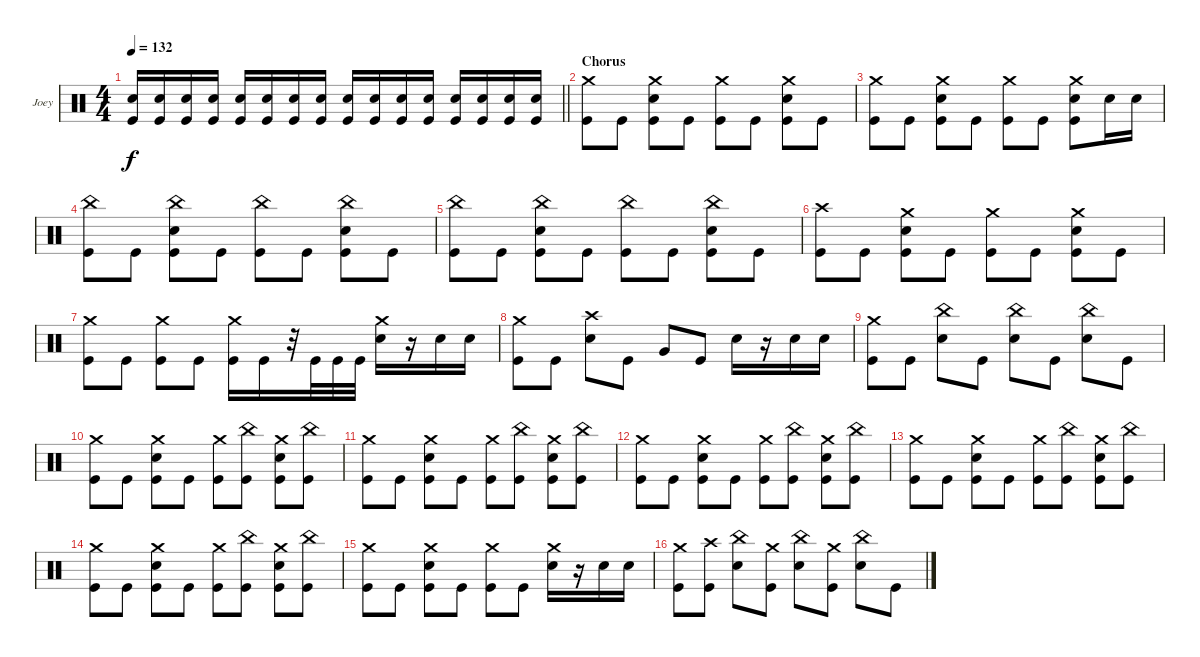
\bracketExtendMode groupsimilarinstruments
\firstSystemTrackNameOrientation horizontal
\otherSystemsTrackNameOrientation horizontal
\track ("Joey Jordison" "Joey") {instrument percussion}
\staff {score}
\articulation defaults
\ts (4 4)
\tempo 132
\clef neutral
\barLineRight lightlight
\ks c
("Snare (hit) 2" "Kick (hit)").16{dy f} ("Snare (hit) 2" "Kick (hit)").16 ("Snare (hit) 2" "Kick (hit)").16 ("Snare (hit) 2" "Kick (hit)").16 ("Snare (hit) 2" "Kick (hit)").16 ("Snare (hit) 2" "Kick (hit)").16 ("Snare (hit) 2" "Kick (hit)").16 ("Snare (hit) 2" "Kick (hit)").16 ("Snare (hit) 2" "Kick (hit)").16 ("Snare (hit) 2" "Kick (hit)").16 ("Snare (hit) 2" "Kick (hit)").16 ("Snare (hit) 2" "Kick (hit)").16 ("Snare (hit) 2" "Kick (hit)").16 ("Snare (hit) 2" "Kick (hit)").16 ("Snare (hit) 2" "Kick (hit)").16 ("Snare (hit) 2" "Kick (hit)").16 |
\section ("" "Chorus")
("Crash medium (hit)" "Kick (hit)").8 "Kick (hit)".8 ("Crash medium (hit)" "Snare (hit) 2" "Kick (hit)").8 "Kick (hit)".8 ("Crash medium (hit)" "Kick (hit)").8 "Kick (hit)".8 ("Crash medium (hit)" "Snare (hit) 2" "Kick (hit)").8 "Kick (hit)".8 |
("Crash medium (hit)" "Kick (hit)").8 "Kick (hit)".8 ("Crash medium (hit)" "Snare (hit) 2" "Kick (hit)").8 "Kick (hit)".8 ("Crash medium (hit)" "Kick (hit)").8 "Kick (hit)".8 ("Crash medium (hit)" "Snare (hit) 2" "Kick (hit)").8 "Snare (hit) 2".16 "Snare (hit) 2".16 |
("Kick (hit)" "China (hit)").8 "Kick (hit)".8 ("Snare (hit) 2" "Kick (hit)" "China (hit)").8 "Kick (hit)".8 ("Kick (hit)" "China (hit)").8 "Kick (hit)".8 ("Snare (hit) 2" "Kick (hit)" "China (hit)").8 "Kick (hit)".8 |
("Kick (hit)" "China (hit)").8 "Kick (hit)".8 ("Snare (hit) 2" "Kick (hit)" "China (hit)").8 "Kick (hit)".8 ("Kick (hit)" "China (hit)").8 "Kick (hit)".8 ("Snare (hit) 2" "Kick (hit)" "China (hit)").8 "Kick (hit)".8 |
("Crash high (hit)" "Kick (hit)").8 "Kick (hit)".8 ("Crash medium (hit)" "Snare (hit) 2" "Kick (hit)").8 "Kick (hit)".8 ("Crash medium (hit)" "Kick (hit)").8 "Kick (hit)".8 ("Crash medium (hit)" "Snare (hit) 2" "Kick (hit)").8 "Kick (hit)".8 |
("Crash medium (hit)" "Kick (hit)").8 "Kick (hit)".8 ("Crash medium (hit)" "Kick (hit)").8 "Kick (hit)".8 ("Crash medium (hit)" "Kick (hit)").16 "Kick (hit)".16 r.32 "Kick (hit)".32 "Kick (hit)".32 "Kick (hit)".32 ("Crash medium (hit)" "Snare (hit) 2").16 r.16 "Snare (hit) 2".16 "Snare (hit) 2".16 |
("Crash medium (hit)" "Kick (hit)").8 "Kick (hit)".8 ("Crash high (hit)" "Snare (hit) 2").8 "Kick (hit)".8 "Very Low Tom (hit)".8 "Kick (hit)".8 "Snare (hit) 2".16 r.16 "Snare (hit) 2".16 "Snare (hit) 2".16 |
("Crash medium (hit)" "Kick (hit)").8 "Kick (hit)".8 ("China (hit)" "Snare (hit) 2").8 "Kick (hit)".8 ("China (hit)" "Snare (hit) 2").8 "Kick (hit)".8 ("China (hit)" "Snare (hit) 2").8 "Kick (hit)".8 |
("Crash medium (hit)" "Kick (hit)").8 "Kick (hit)".8 ("Crash medium (hit)" "Snare (hit) 2" "Kick (hit)").8 "Kick (hit)".8 ("Crash medium (hit)" "Kick (hit)").8 ("China (hit)" "Kick (hit)").8 ("Crash medium (hit)" "Snare (hit) 2" "Kick (hit)").8 ("China (hit)" "Kick (hit)").8 |
("Crash medium (hit)" "Kick (hit)").8 "Kick (hit)".8 ("Crash medium (hit)" "Snare (hit) 2" "Kick (hit)").8 "Kick (hit)".8 ("Crash medium (hit)" "Kick (hit)").8 ("China (hit)" "Kick (hit)").8 ("Crash medium (hit)" "Snare (hit) 2" "Kick (hit)").8 ("China (hit)" "Kick (hit)").8 |
("Crash medium (hit)" "Kick (hit)").8 "Kick (hit)".8 ("Crash medium (hit)" "Snare (hit) 2" "Kick (hit)").8 "Kick (hit)".8 ("Crash medium (hit)" "Kick (hit)").8 ("China (hit)" "Kick (hit)").8 ("Crash medium (hit)" "Snare (hit) 2" "Kick (hit)").8 ("China (hit)" "Kick (hit)").8 |
("Crash medium (hit)" "Kick (hit)").8 "Kick (hit)".8 ("Crash medium (hit)" "Snare (hit) 2" "Kick (hit)").8 "Kick (hit)".8 ("Crash medium (hit)" "Kick (hit)").8 ("China (hit)" "Kick (hit)").8 ("Crash medium (hit)" "Snare (hit) 2" "Kick (hit)").8 ("China (hit)" "Kick (hit)").8 |
("Crash medium (hit)" "Kick (hit)").8 "Kick (hit)".8 ("Crash medium (hit)" "Snare (hit) 2" "Kick (hit)").8 "Kick (hit)".8 ("Crash medium (hit)" "Kick (hit)").8 ("China (hit)" "Kick (hit)").8 ("Crash medium (hit)" "Snare (hit) 2" "Kick (hit)").8 ("China (hit)" "Kick (hit)").8 |
("Crash medium (hit)" "Kick (hit)").8 "Kick (hit)".8 ("Crash medium (hit)" "Snare (hit) 2" "Kick (hit)").8 "Kick (hit)".8 ("Crash medium (hit)" "Kick (hit)").8 "Kick (hit)".8 ("Crash medium (hit)" "Snare (hit) 2").16 r.16 "Snare (hit) 2".16 "Snare (hit) 2".16 |
("Crash medium (hit)" "Kick (hit)").8 ("Crash high (hit)" "Kick (hit)").8 ("China (hit)" "Snare (hit) 2").8 ("Crash medium (hit)" "Kick (hit)").8 ("China (hit)" "Snare (hit) 2").8 ("Crash medium (hit)" "Kick (hit)").8 ("China (hit)" "Snare (hit) 2").8 "Kick (hit)".8
